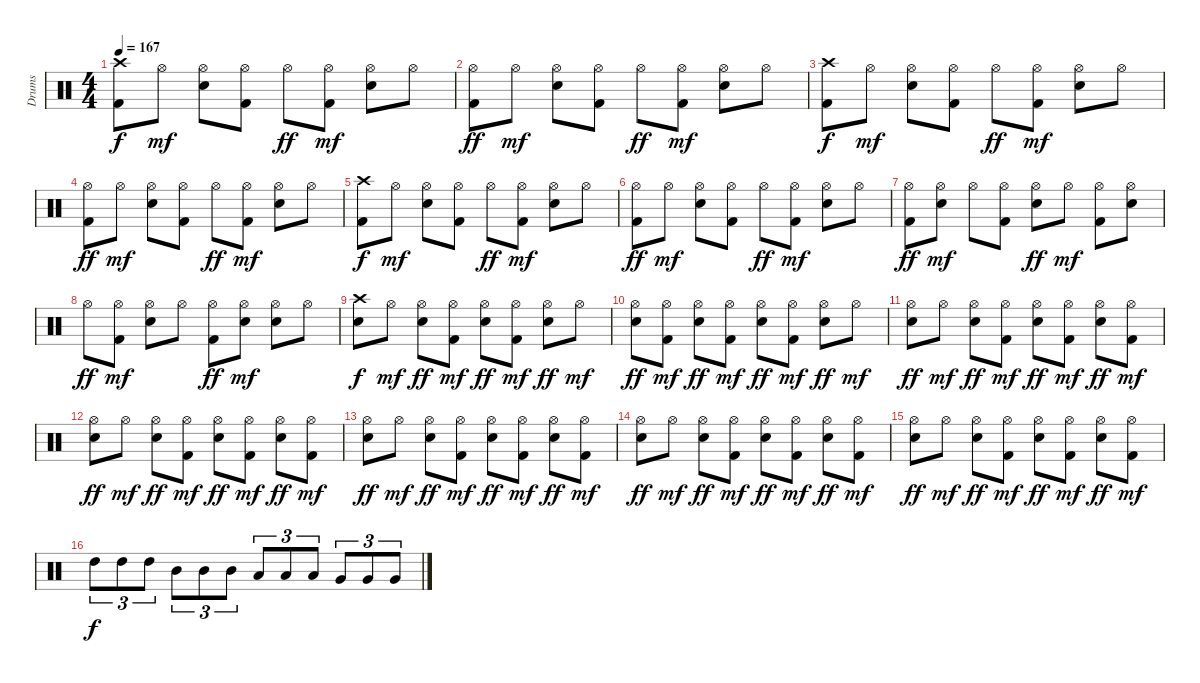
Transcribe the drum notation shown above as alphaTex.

\track ("Drums" "Drums") {instrument percussion}
\staff {score}
\articulation defaults
\ts (4 4)
\tempo 167
\clef neutral
\ks c
("Crash high (hit)" "Kick (hit) 2").8{dy f} "Hi-Hat (open)".8{dy mf} ("Hi-Hat (open)" "Electric Snare (hit)").8 ("Hi-Hat (open)" "Kick (hit) 2").8 "Hi-Hat (open)".8{dy ff} ("Hi-Hat (open)" "Kick (hit) 2").8{dy mf} ("Hi-Hat (open)" "Electric Snare (hit)").8 "Hi-Hat (open)".8 |
("Hi-Hat (open)" "Kick (hit) 2").8{dy ff} "Hi-Hat (open)".8{dy mf} ("Hi-Hat (open)" "Electric Snare (hit)").8 ("Hi-Hat (open)" "Kick (hit) 2").8 "Hi-Hat (open)".8{dy ff} ("Hi-Hat (open)" "Kick (hit) 2").8{dy mf} ("Hi-Hat (open)" "Electric Snare (hit)").8 "Hi-Hat (open)".8 |
("Crash high (hit)" "Kick (hit) 2").8{dy f} "Hi-Hat (open)".8{dy mf} ("Hi-Hat (open)" "Electric Snare (hit)").8 ("Hi-Hat (open)" "Kick (hit) 2").8 "Hi-Hat (open)".8{dy ff} ("Hi-Hat (open)" "Kick (hit) 2").8{dy mf} ("Hi-Hat (open)" "Electric Snare (hit)").8 "Hi-Hat (open)".8 |
("Hi-Hat (open)" "Kick (hit) 2").8{dy ff} "Hi-Hat (open)".8{dy mf} ("Hi-Hat (open)" "Electric Snare (hit)").8 ("Hi-Hat (open)" "Kick (hit) 2").8 "Hi-Hat (open)".8{dy ff} ("Hi-Hat (open)" "Kick (hit) 2").8{dy mf} ("Hi-Hat (open)" "Electric Snare (hit)").8 "Hi-Hat (open)".8 |
("Crash high (hit)" "Kick (hit) 2").8{dy f} "Hi-Hat (open)".8{dy mf} ("Hi-Hat (open)" "Electric Snare (hit)").8 ("Hi-Hat (open)" "Kick (hit) 2").8 "Hi-Hat (open)".8{dy ff} ("Hi-Hat (open)" "Kick (hit) 2").8{dy mf} ("Hi-Hat (open)" "Electric Snare (hit)").8 "Hi-Hat (open)".8 |
("Hi-Hat (open)" "Kick (hit) 2").8{dy ff} "Hi-Hat (open)".8{dy mf} ("Hi-Hat (open)" "Electric Snare (hit)").8 ("Hi-Hat (open)" "Kick (hit) 2").8 "Hi-Hat (open)".8{dy ff} ("Hi-Hat (open)" "Kick (hit) 2").8{dy mf} ("Hi-Hat (open)" "Electric Snare (hit)").8 "Hi-Hat (open)".8 |
("Hi-Hat (open)" "Kick (hit) 2").8{dy ff} ("Hi-Hat (open)" "Electric Snare (hit)").8{dy mf} "Hi-Hat (open)".8 ("Hi-Hat (open)" "Kick (hit) 2").8 ("Hi-Hat (open)" "Electric Snare (hit)").8{dy ff} "Hi-Hat (open)".8{dy mf} ("Hi-Hat (open)" "Kick (hit) 2").8 ("Hi-Hat (open)" "Electric Snare (hit)").8 |
"Hi-Hat (open)".8{dy ff} ("Hi-Hat (open)" "Kick (hit) 2").8{dy mf} ("Hi-Hat (open)" "Electric Snare (hit)").8 "Hi-Hat (open)".8 ("Hi-Hat (open)" "Kick (hit) 2").8{dy ff} ("Hi-Hat (open)" "Electric Snare (hit)").8{dy mf} ("Hi-Hat (open)" "Electric Snare (hit)").8 "Hi-Hat (open)".8 |
("Crash high (hit)" "Electric Snare (hit)").8{dy f} "Hi-Hat (open)".8{dy mf} ("Hi-Hat (open)" "Electric Snare (hit)").8{dy ff} ("Hi-Hat (open)" "Kick (hit) 2").8{dy mf} ("Hi-Hat (open)" "Electric Snare (hit)").8{dy ff} ("Hi-Hat (open)" "Kick (hit) 2").8{dy mf} ("Hi-Hat (open)" "Electric Snare (hit)").8{dy ff} "Hi-Hat (open)".8{dy mf} |
("Hi-Hat (open)" "Electric Snare (hit)").8{dy ff} ("Hi-Hat (open)" "Kick (hit) 2").8{dy mf} ("Hi-Hat (open)" "Electric Snare (hit)").8{dy ff} ("Hi-Hat (open)" "Kick (hit) 2").8{dy mf} ("Hi-Hat (open)" "Electric Snare (hit)").8{dy ff} ("Hi-Hat (open)" "Kick (hit) 2").8{dy mf} ("Hi-Hat (open)" "Electric Snare (hit)").8{dy ff} "Hi-Hat (open)".8{dy mf} |
("Hi-Hat (open)" "Electric Snare (hit)").8{dy ff} "Hi-Hat (open)".8{dy mf} ("Hi-Hat (open)" "Electric Snare (hit)").8{dy ff} ("Hi-Hat (open)" "Kick (hit) 2").8{dy mf} ("Hi-Hat (open)" "Electric Snare (hit)").8{dy ff} ("Hi-Hat (open)" "Kick (hit) 2").8{dy mf} ("Hi-Hat (open)" "Electric Snare (hit)").8{dy ff} ("Hi-Hat (open)" "Kick (hit) 2").8{dy mf} |
("Hi-Hat (open)" "Electric Snare (hit)").8{dy ff} "Hi-Hat (open)".8{dy mf} ("Hi-Hat (open)" "Electric Snare (hit)").8{dy ff} ("Hi-Hat (open)" "Kick (hit) 2").8{dy mf} ("Hi-Hat (open)" "Electric Snare (hit)").8{dy ff} ("Hi-Hat (open)" "Kick (hit) 2").8{dy mf} ("Hi-Hat (open)" "Electric Snare (hit)").8{dy ff} ("Hi-Hat (open)" "Kick (hit) 2").8{dy mf} |
("Hi-Hat (open)" "Electric Snare (hit)").8{dy ff} "Hi-Hat (open)".8{dy mf} ("Hi-Hat (open)" "Electric Snare (hit)").8{dy ff} ("Hi-Hat (open)" "Kick (hit) 2").8{dy mf} ("Hi-Hat (open)" "Electric Snare (hit)").8{dy ff} ("Hi-Hat (open)" "Kick (hit) 2").8{dy mf} ("Hi-Hat (open)" "Electric Snare (hit)").8{dy ff} ("Hi-Hat (open)" "Kick (hit) 2").8{dy mf} |
("Hi-Hat (open)" "Electric Snare (hit)").8{dy ff} "Hi-Hat (open)".8{dy mf} ("Hi-Hat (open)" "Electric Snare (hit)").8{dy ff} ("Hi-Hat (open)" "Kick (hit) 2").8{dy mf} ("Hi-Hat (open)" "Electric Snare (hit)").8{dy ff} ("Hi-Hat (open)" "Kick (hit) 2").8{dy mf} ("Hi-Hat (open)" "Electric Snare (hit)").8{dy ff} ("Hi-Hat (open)" "Kick (hit) 2").8{dy mf} |
("Hi-Hat (open)" "Electric Snare (hit)").8{dy ff} "Hi-Hat (open)".8{dy mf} ("Hi-Hat (open)" "Electric Snare (hit)").8{dy ff} ("Hi-Hat (open)" "Kick (hit) 2").8{dy mf} ("Hi-Hat (open)" "Electric Snare (hit)").8{dy ff} ("Hi-Hat (open)" "Kick (hit) 2").8{dy mf} ("Hi-Hat (open)" "Electric Snare (hit)").8{dy ff} ("Hi-Hat (open)" "Kick (hit) 2").8{dy mf} |
"High Tom (hit)".8{tu (3 2) dy f} "High Tom (hit)".8{tu (3 2)} "High Tom (hit)".8{tu (3 2)} "Mid Tom (hit)".8{tu (3 2)} "Mid Tom (hit)".8{tu (3 2)} "Mid Tom (hit)".8{tu (3 2)} "Low Tom (hit)".8{tu (3 2)} "Low Tom (hit)".8{tu (3 2)} "Low Tom (hit)".8{tu (3 2)} "Very Low Tom (hit)".8{tu (3 2)} "Very Low Tom (hit)".8{tu (3 2)} "Very Low Tom (hit)".8{tu (3 2)}
